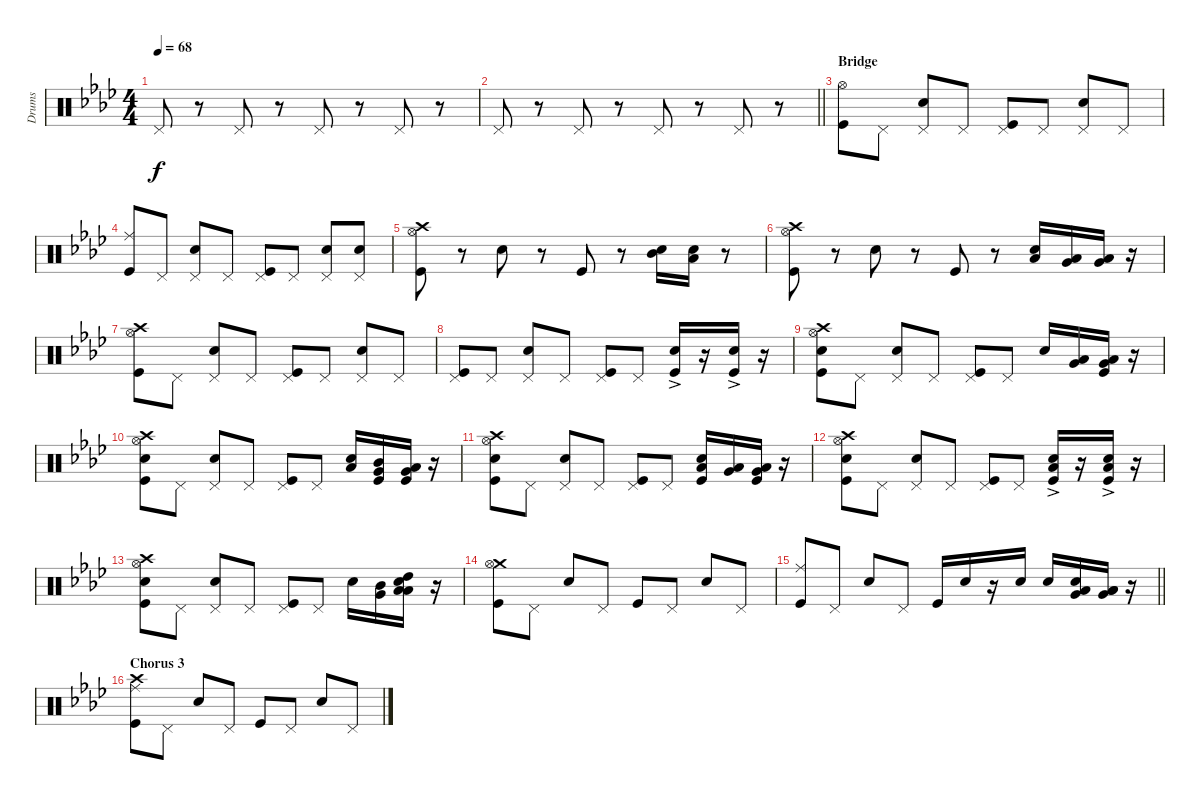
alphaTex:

\track ("Drums" "Drums") {instrument percussion}
\staff {score}
\articulation defaults
\ts (4 4)
\tempo 68
\clef neutral
\ks ab "Pedal Hi-Hat (hit)".8{dy f}
r.8 "Pedal Hi-Hat (hit)".8 r.8 "Pedal Hi-Hat (hit)".8 r.8 "Pedal Hi-Hat (hit)".8 r.8 |
\barLineRight lightlight "Pedal Hi-Hat (hit)".8
r.8 "Pedal Hi-Hat (hit)".8 r.8 "Pedal Hi-Hat (hit)".8 r.8 "Pedal Hi-Hat (hit)".8 r.8 |
\section ("" "Bridge")
("Kick (hit)" "Hi-Hat (open)").8 "Pedal Hi-Hat (hit)".8 ("Snare (hit) 2" "Pedal Hi-Hat (hit)").8 "Pedal Hi-Hat (hit)".8 ("Kick (hit)" "Pedal Hi-Hat (hit)").8 "Pedal Hi-Hat (hit)".8 ("Snare (hit) 2" "Pedal Hi-Hat (hit)").8 "Pedal Hi-Hat (hit)".8 |
("Kick (hit)" "Ride (middle)").8 "Pedal Hi-Hat (hit)".8 ("Snare (hit) 2" "Pedal Hi-Hat (hit)").8 "Pedal Hi-Hat (hit)".8 ("Kick (hit)" "Pedal Hi-Hat (hit)").8 "Pedal Hi-Hat (hit)".8 ("Snare (hit) 2" "Pedal Hi-Hat (hit)").8 ("Snare (hit) 2" "Pedal Hi-Hat (hit)").8 |
("Kick (hit)" "Hi-Hat (open)" "Crash high (hit)").8 r.8 "Snare (hit) 2".8 r.8 "Kick (hit)".8 r.8 ("Snare (hit) 2" "Mid Tom (hit)").16 ("Snare (hit) 2" "Low Tom (hit)").16 r.8 |
("Kick (hit)" "Hi-Hat (open)" "Crash high (hit)").8 r.8 "Snare (hit) 2".8 r.8 "Kick (hit)".8 r.8 ("Low Tom (hit)" "Snare (hit) 2").16 ("Very Low Tom (hit)" "Low Tom (hit)").16 ("Very Low Tom (hit)" "Low Floor Tom (hit)").16 r.16 |
("Kick (hit)" "Crash high (hit)" "Hi-Hat (open)").8 "Pedal Hi-Hat (hit)".8 ("Snare (hit) 2" "Pedal Hi-Hat (hit)").8 "Pedal Hi-Hat (hit)".8 ("Kick (hit)" "Pedal Hi-Hat (hit)").8 "Pedal Hi-Hat (hit)".8 ("Snare (hit) 2" "Pedal Hi-Hat (hit)").8 "Pedal Hi-Hat (hit)".8 |
("Kick (hit)" "Pedal Hi-Hat (hit)").8 "Pedal Hi-Hat (hit)".8 ("Snare (hit) 2" "Pedal Hi-Hat (hit)").8 "Pedal Hi-Hat (hit)".8 ("Kick (hit)" "Pedal Hi-Hat (hit)").8 "Pedal Hi-Hat (hit)".8 ("Snare (hit) 2"{ac} "Kick (hit)").16 r.16 ("Snare (hit) 2"{ac} "Kick (hit)").16 r.16 |
("Kick (hit)" "Crash high (hit)" "Hi-Hat (open)" "Snare (hit) 2").8 "Pedal Hi-Hat (hit)".8 ("Snare (hit) 2" "Pedal Hi-Hat (hit)").8 "Pedal Hi-Hat (hit)".8 ("Kick (hit)" "Pedal Hi-Hat (hit)").8 "Pedal Hi-Hat (hit)".8 "Snare (hit) 2".16 ("Very Low Tom (hit)" "Low Tom (hit)").16 ("Low Floor Tom (hit)" "Kick (hit)" "Very Low Tom (hit)").16 r.16 |
("Crash high (hit)" "Hi-Hat (open)" "Snare (hit) 2" "Kick (hit)").8 "Pedal Hi-Hat (hit)".8 ("Snare (hit) 2" "Pedal Hi-Hat (hit)").8 "Pedal Hi-Hat (hit)".8 ("Kick (hit)" "Pedal Hi-Hat (hit)").8 "Pedal Hi-Hat (hit)".8 ("Snare (hit) 2" "Low Tom (hit)").16 ("Very Low Tom (hit)" "Kick (hit)" "Mid Tom (hit)").16 ("Low Floor Tom (hit)" "Kick (hit)" "Very Low Tom (hit)").16 r.16 |
("Kick (hit)" "Crash high (hit)" "Hi-Hat (open)" "Snare (hit) 2").8 "Pedal Hi-Hat (hit)".8 ("Snare (hit) 2" "Pedal Hi-Hat (hit)").8 "Pedal Hi-Hat (hit)".8 ("Kick (hit)" "Pedal Hi-Hat (hit)").8 "Pedal Hi-Hat (hit)".8 ("Snare (hit) 2" "Kick (hit)" "Low Floor Tom (hit)").16 ("Very Low Tom (hit)" "Low Tom (hit)").16 ("Low Floor Tom (hit)" "Kick (hit)" "Very Low Tom (hit)").16 r.16 |
("Kick (hit)" "Snare (hit) 2" "Crash high (hit)" "Hi-Hat (open)").8 "Pedal Hi-Hat (hit)".8 ("Snare (hit) 2" "Pedal Hi-Hat (hit)").8 "Pedal Hi-Hat (hit)".8 ("Kick (hit)" "Pedal Hi-Hat (hit)").8 "Pedal Hi-Hat (hit)".8 ("Snare (hit) 2"{ac} "Kick (hit)" "Low Floor Tom (hit)").16 r.16 ("Snare (hit) 2"{ac} "Kick (hit)" "Low Floor Tom (hit)").16 r.16 |
("Kick (hit)" "Hi-Hat (open)" "Crash high (hit)" "Snare (hit) 2").8 "Pedal Hi-Hat (hit)".8 ("Snare (hit) 2" "Pedal Hi-Hat (hit)").8 "Pedal Hi-Hat (hit)".8 ("Kick (hit)" "Pedal Hi-Hat (hit)").8 "Pedal Hi-Hat (hit)".8 "Snare (hit) 2".16 ("Very Low Tom (hit)" "Mid Tom (hit)").16 ("Low Tom (hit)" "Low Floor Tom (hit)" "Snare (hit) 2" "High Tom (hit)").16 r.16 |
("Kick (hit)" "Crash medium (hit)" "Hi-Hat (open)").8 "Pedal Hi-Hat (hit)".8 "Snare (hit) 2".8 "Pedal Hi-Hat (hit)".8 "Kick (hit)".8 "Pedal Hi-Hat (hit)".8 "Snare (hit) 2".8 "Pedal Hi-Hat (hit)".8 |
\barLineRight lightlight
("Kick (hit)" "Ride (middle)").8 "Pedal Hi-Hat (hit)".8 "Snare (hit) 2".8 "Pedal Hi-Hat (hit)".8 "Kick (hit)".16 "Snare (hit) 2".16 r.16 "Snare (hit) 2".16 "Snare (hit) 2".16 ("Very Low Tom (hit)" "Low Tom (hit)" "Snare (hit) 2").16 ("Very Low Tom (hit)" "Low Floor Tom (hit)" "Low Tom (hit)").16 r.16 |
\section ("" "Chorus 3")
("Kick (hit)" "Ride (middle)" "Crash high (hit)").8 "Pedal Hi-Hat (hit)".8 "Snare (hit) 2".8 "Pedal Hi-Hat (hit)".8 "Kick (hit)".8 "Pedal Hi-Hat (hit)".8 "Snare (hit) 2".8 "Pedal Hi-Hat (hit)".8
